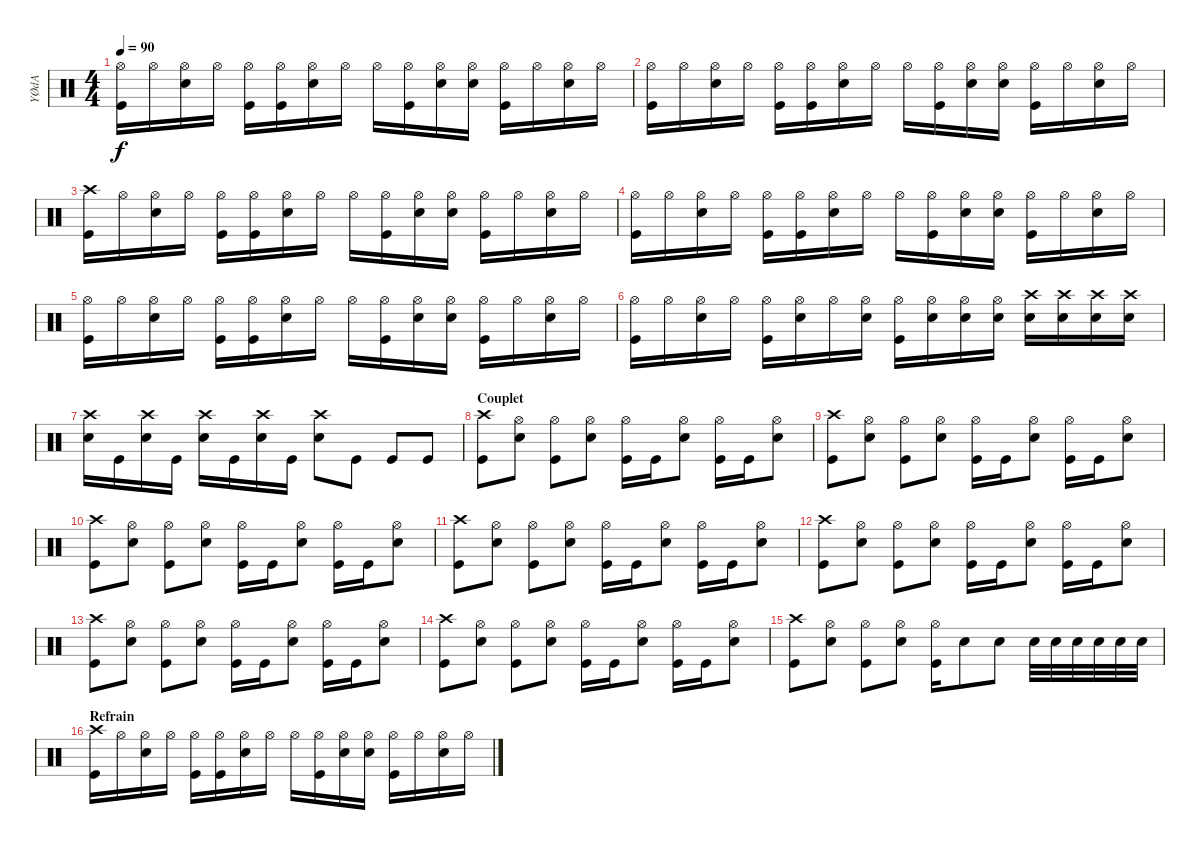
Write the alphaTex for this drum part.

\track ("YØdA" "YØdA") {instrument percussion}
\staff {score}
\articulation defaults
\ts (4 4)
\tempo 90
\clef neutral
\ks c
("Hi-Hat (open)" "Kick (hit)").16{dy f} "Hi-Hat (open)".16 ("Hi-Hat (open)" "Electric Snare (hit)").16 "Hi-Hat (open)".16 ("Hi-Hat (open)" "Kick (hit)").16 ("Hi-Hat (open)" "Kick (hit)").16 ("Hi-Hat (open)" "Electric Snare (hit)").16 "Hi-Hat (open)".16 "Hi-Hat (open)".16 ("Hi-Hat (open)" "Kick (hit)").16 ("Hi-Hat (open)" "Electric Snare (hit)").16 ("Hi-Hat (open)" "Electric Snare (hit)").16 ("Hi-Hat (open)" "Kick (hit)").16 "Hi-Hat (open)".16 ("Hi-Hat (open)" "Electric Snare (hit)").16 "Hi-Hat (open)".16 |
("Hi-Hat (open)" "Kick (hit)").16 "Hi-Hat (open)".16 ("Hi-Hat (open)" "Electric Snare (hit)").16 "Hi-Hat (open)".16 ("Hi-Hat (open)" "Kick (hit)").16 ("Hi-Hat (open)" "Kick (hit)").16 ("Hi-Hat (open)" "Electric Snare (hit)").16 "Hi-Hat (open)".16 "Hi-Hat (open)".16 ("Hi-Hat (open)" "Kick (hit)").16 ("Hi-Hat (open)" "Electric Snare (hit)").16 ("Hi-Hat (open)" "Electric Snare (hit)").16 ("Hi-Hat (open)" "Kick (hit)").16 "Hi-Hat (open)".16 ("Hi-Hat (open)" "Electric Snare (hit)").16 "Hi-Hat (open)".16 |
("Crash high (hit)" "Kick (hit)").16 "Hi-Hat (open)".16 ("Hi-Hat (open)" "Electric Snare (hit)").16 "Hi-Hat (open)".16 ("Hi-Hat (open)" "Kick (hit)").16 ("Hi-Hat (open)" "Kick (hit)").16 ("Hi-Hat (open)" "Electric Snare (hit)").16 "Hi-Hat (open)".16 "Hi-Hat (open)".16 ("Hi-Hat (open)" "Kick (hit)").16 ("Hi-Hat (open)" "Electric Snare (hit)").16 ("Hi-Hat (open)" "Electric Snare (hit)").16 ("Hi-Hat (open)" "Kick (hit)").16 "Hi-Hat (open)".16 ("Hi-Hat (open)" "Electric Snare (hit)").16 "Hi-Hat (open)".16 |
("Hi-Hat (open)" "Kick (hit)").16 "Hi-Hat (open)".16 ("Hi-Hat (open)" "Electric Snare (hit)").16 "Hi-Hat (open)".16 ("Hi-Hat (open)" "Kick (hit)").16 ("Hi-Hat (open)" "Kick (hit)").16 ("Hi-Hat (open)" "Electric Snare (hit)").16 "Hi-Hat (open)".16 "Hi-Hat (open)".16 ("Hi-Hat (open)" "Kick (hit)").16 ("Hi-Hat (open)" "Electric Snare (hit)").16 ("Hi-Hat (open)" "Electric Snare (hit)").16 ("Hi-Hat (open)" "Kick (hit)").16 "Hi-Hat (open)".16 ("Hi-Hat (open)" "Electric Snare (hit)").16 "Hi-Hat (open)".16 |
("Hi-Hat (open)" "Kick (hit)").16 "Hi-Hat (open)".16 ("Hi-Hat (open)" "Electric Snare (hit)").16 "Hi-Hat (open)".16 ("Hi-Hat (open)" "Kick (hit)").16 ("Hi-Hat (open)" "Kick (hit)").16 ("Hi-Hat (open)" "Electric Snare (hit)").16 "Hi-Hat (open)".16 "Hi-Hat (open)".16 ("Hi-Hat (open)" "Kick (hit)").16 ("Hi-Hat (open)" "Electric Snare (hit)").16 ("Hi-Hat (open)" "Electric Snare (hit)").16 ("Hi-Hat (open)" "Kick (hit)").16 "Hi-Hat (open)".16 ("Hi-Hat (open)" "Electric Snare (hit)").16 "Hi-Hat (open)".16 |
("Hi-Hat (open)" "Kick (hit)").16 "Hi-Hat (open)".16 ("Hi-Hat (open)" "Electric Snare (hit)").16 "Hi-Hat (open)".16 ("Hi-Hat (open)" "Kick (hit)").16 ("Hi-Hat (open)" "Electric Snare (hit)").16 "Hi-Hat (open)".16 ("Hi-Hat (open)" "Electric Snare (hit)").16 ("Hi-Hat (open)" "Kick (hit)").16 ("Hi-Hat (open)" "Electric Snare (hit)").16 ("Hi-Hat (open)" "Electric Snare (hit)").16 ("Hi-Hat (open)" "Electric Snare (hit)").16 ("Crash high (hit)" "Electric Snare (hit)").16 ("Crash high (hit)" "Electric Snare (hit)").16 ("Crash high (hit)" "Electric Snare (hit)").16 ("Crash high (hit)" "Electric Snare (hit)").16 |
("Crash high (hit)" "Electric Snare (hit)").16 "Kick (hit)".16 ("Crash high (hit)" "Electric Snare (hit)").16 "Kick (hit)".16 ("Crash high (hit)" "Electric Snare (hit)").16 "Kick (hit)".16 ("Crash high (hit)" "Electric Snare (hit)").16 "Kick (hit)".16 ("Crash high (hit)" "Electric Snare (hit)").8 "Kick (hit)".8 "Kick (hit)".8 "Kick (hit)".8 |
\section ("" "Couplet")
("Crash high (hit)" "Kick (hit)").8 ("Hi-Hat (open)" "Electric Snare (hit)").8 ("Hi-Hat (open)" "Kick (hit)").8 ("Hi-Hat (open)" "Electric Snare (hit)").8 ("Hi-Hat (open)" "Kick (hit)").16 "Kick (hit)".16 ("Hi-Hat (open)" "Electric Snare (hit)").8 ("Hi-Hat (open)" "Kick (hit)").16 "Kick (hit)".16 ("Hi-Hat (open)" "Electric Snare (hit)").8 |
("Crash high (hit)" "Kick (hit)").8 ("Hi-Hat (open)" "Electric Snare (hit)").8 ("Hi-Hat (open)" "Kick (hit)").8 ("Hi-Hat (open)" "Electric Snare (hit)").8 ("Hi-Hat (open)" "Kick (hit)").16 "Kick (hit)".16 ("Hi-Hat (open)" "Electric Snare (hit)").8 ("Hi-Hat (open)" "Kick (hit)").16 "Kick (hit)".16 ("Hi-Hat (open)" "Electric Snare (hit)").8 |
("Crash high (hit)" "Kick (hit)").8 ("Hi-Hat (open)" "Electric Snare (hit)").8 ("Hi-Hat (open)" "Kick (hit)").8 ("Hi-Hat (open)" "Electric Snare (hit)").8 ("Hi-Hat (open)" "Kick (hit)").16 "Kick (hit)".16 ("Hi-Hat (open)" "Electric Snare (hit)").8 ("Hi-Hat (open)" "Kick (hit)").16 "Kick (hit)".16 ("Hi-Hat (open)" "Electric Snare (hit)").8 |
("Crash high (hit)" "Kick (hit)").8 ("Hi-Hat (open)" "Electric Snare (hit)").8 ("Hi-Hat (open)" "Kick (hit)").8 ("Hi-Hat (open)" "Electric Snare (hit)").8 ("Hi-Hat (open)" "Kick (hit)").16 "Kick (hit)".16 ("Hi-Hat (open)" "Electric Snare (hit)").8 ("Hi-Hat (open)" "Kick (hit)").16 "Kick (hit)".16 ("Hi-Hat (open)" "Electric Snare (hit)").8 |
("Crash high (hit)" "Kick (hit)").8 ("Hi-Hat (open)" "Electric Snare (hit)").8 ("Hi-Hat (open)" "Kick (hit)").8 ("Hi-Hat (open)" "Electric Snare (hit)").8 ("Hi-Hat (open)" "Kick (hit)").16 "Kick (hit)".16 ("Hi-Hat (open)" "Electric Snare (hit)").8 ("Hi-Hat (open)" "Kick (hit)").16 "Kick (hit)".16 ("Hi-Hat (open)" "Electric Snare (hit)").8 |
("Crash high (hit)" "Kick (hit)").8 ("Hi-Hat (open)" "Electric Snare (hit)").8 ("Hi-Hat (open)" "Kick (hit)").8 ("Hi-Hat (open)" "Electric Snare (hit)").8 ("Hi-Hat (open)" "Kick (hit)").16 "Kick (hit)".16 ("Hi-Hat (open)" "Electric Snare (hit)").8 ("Hi-Hat (open)" "Kick (hit)").16 "Kick (hit)".16 ("Hi-Hat (open)" "Electric Snare (hit)").8 |
("Crash high (hit)" "Kick (hit)").8 ("Hi-Hat (open)" "Electric Snare (hit)").8 ("Hi-Hat (open)" "Kick (hit)").8 ("Hi-Hat (open)" "Electric Snare (hit)").8 ("Hi-Hat (open)" "Kick (hit)").16 "Kick (hit)".16 ("Hi-Hat (open)" "Electric Snare (hit)").8 ("Hi-Hat (open)" "Kick (hit)").16 "Kick (hit)".16 ("Hi-Hat (open)" "Electric Snare (hit)").8 |
("Crash high (hit)" "Kick (hit)").8 ("Hi-Hat (open)" "Electric Snare (hit)").8 ("Hi-Hat (open)" "Kick (hit)").8 ("Hi-Hat (open)" "Electric Snare (hit)").8 ("Hi-Hat (open)" "Kick (hit)").16 "Electric Snare (hit)".8 "Electric Snare (hit)".8 "Electric Snare (hit)".32 "Electric Snare (hit)".32 "Electric Snare (hit)".32 "Electric Snare (hit)".32 "Electric Snare (hit)".32 "Electric Snare (hit)".32 |
\section ("" "Refrain")
("Crash high (hit)" "Kick (hit)").16 "Hi-Hat (open)".16 ("Hi-Hat (open)" "Electric Snare (hit)").16 "Hi-Hat (open)".16 ("Hi-Hat (open)" "Kick (hit)").16 ("Hi-Hat (open)" "Kick (hit)").16 ("Hi-Hat (open)" "Electric Snare (hit)").16 "Hi-Hat (open)".16 "Hi-Hat (open)".16 ("Hi-Hat (open)" "Kick (hit)").16 ("Hi-Hat (open)" "Electric Snare (hit)").16 ("Hi-Hat (open)" "Electric Snare (hit)").16 ("Hi-Hat (open)" "Kick (hit)").16 "Hi-Hat (open)".16 ("Hi-Hat (open)" "Electric Snare (hit)").16 "Hi-Hat (open)".16
